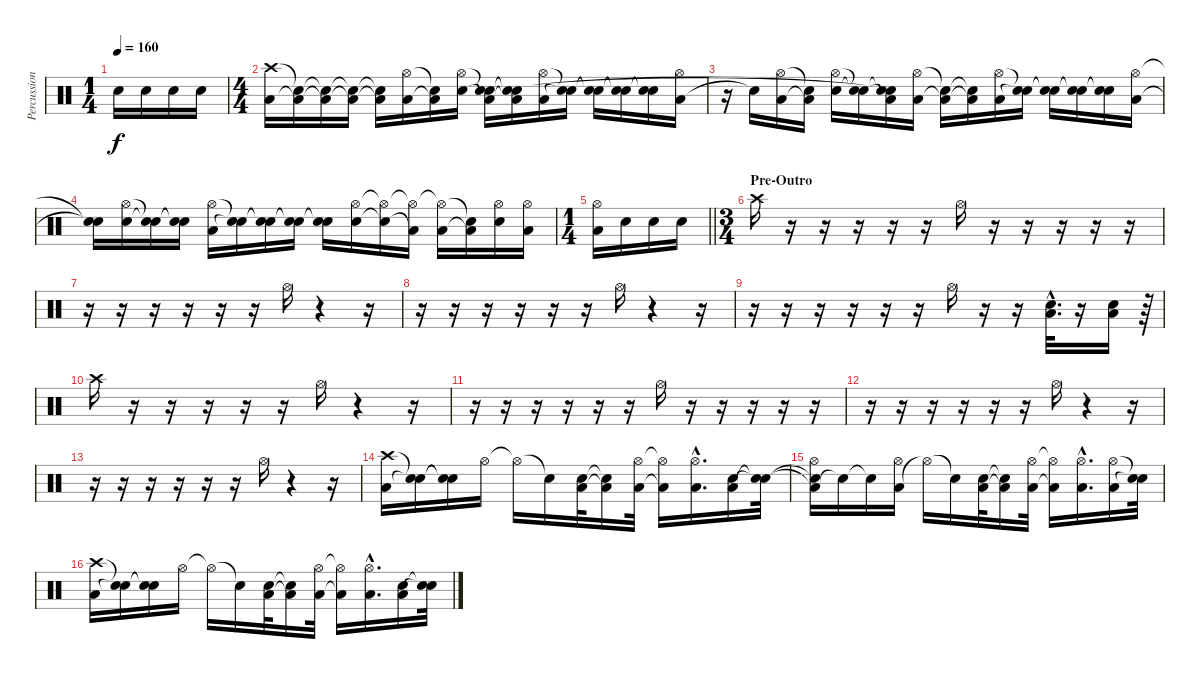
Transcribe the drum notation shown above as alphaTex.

\track ("Percussion 1" "Percussion") {instrument percussion}
\staff {score}
\articulation defaults
\ts (1 4)
\tempo 160
\clef neutral
\ks c "Snare (hit) 2".16{dy f} "Snare (hit) 2".16 "Snare (hit) 2".16 "Snare (hit) 2".16
|
\ts (4 4)
("Low Floor Tom (hit)" "Crash high (hit)").16 ("Low Floor Tom (hit)"{t} "Snare (hit)"{t}).16 ("Low Floor Tom (hit)"{t} "Snare (hit)"{t}).16 ("Low Floor Tom (hit)"{t} "Snare (hit)"{t}).16 ("Low Floor Tom (hit)"{t} "Snare (hit)"{t}).16 ("Low Floor Tom (hit)" "Hi-Hat (open)").16 ("Low Floor Tom (hit)"{t} "Snare (hit)"{t}).16 ("Snare (hit) 2" "Hi-Hat (open)").16 ("Low Floor Tom (hit)"{t} "Snare (hit)"{t} "Snare (hit)"{t}).16 ("Low Floor Tom (hit)"{t} "Snare (hit)"{t} "Snare (hit)"{t}).16 ("Low Floor Tom (hit)" "Hi-Hat (open)").16 ("Snare (hit)"{t} "Snare (hit)"{t}).16 ("Snare (hit)"{t} "Snare (hit)"{t}).16 ("Snare (hit)"{t} "Snare (hit)"{t}).16 ("Snare (hit)"{t} "Snare (hit)"{t}).16 ("Low Floor Tom (hit)" "Hi-Hat (open)").16 |
r.16 "Snare (hit)"{t}.16 ("Low Floor Tom (hit)" "Hi-Hat (open)").16 ("Low Floor Tom (hit)"{t} "Snare (hit)"{t}).16 ("Snare (hit) 2" "Hi-Hat (open)").16 ("Snare (hit)"{t} "Snare (hit)"{t}).16 ("Low Floor Tom (hit)"{t} "Snare (hit)"{t} "Snare (hit)"{t}).16 ("Low Floor Tom (hit)" "Hi-Hat (open)").16 ("Low Floor Tom (hit)"{t} "Snare (hit)"{t}).16 ("Low Floor Tom (hit)"{t} "Snare (hit)"{t}).16 ("Low Floor Tom (hit)" "Hi-Hat (open)").16 ("Snare (hit)"{t} "Snare (hit)"{t}).16 ("Snare (hit)"{t} "Snare (hit)"{t}).16 ("Snare (hit)"{t} "Snare (hit)"{t}).16 ("Snare (hit)"{t} "Snare (hit)"{t}).16 ("Low Floor Tom (hit)" "Hi-Hat (open)").16 |
("Snare (hit)"{t} "Snare (hit)"{t}).16 ("Snare (hit) 2" "Hi-Hat (open)").16 ("Snare (hit)"{t} "Snare (hit)"{t}).16 ("Snare (hit)"{t} "Snare (hit)"{t}).16 ("Low Floor Tom (hit)" "Hi-Hat (open)").16 ("Snare (hit)"{t} "Snare (hit)"{t}).16 ("Snare (hit)"{t} "Snare (hit)"{t}).16 ("Snare (hit)"{t} "Snare (hit)"{t}).16 ("Snare (hit)"{t} "Snare (hit)"{t}).16 ("Snare (hit) 2" "Hi-Hat (open)").16 ("Snare (hit)"{t} "Hi-Hat (open)"{t}).16 ("Low Floor Tom (hit)"{t} "Hi-Hat (open)"{t}).16 ("Low Floor Tom (hit)" "Hi-Hat (open)"{t}).16 ("Low Floor Tom (hit)"{t} "Snare (hit)"{t}).16 ("Snare (hit) 2" "Hi-Hat (open)").16 ("Low Floor Tom (hit)" "Hi-Hat (open)").16 |
\ts (1 4)
\barLineRight lightlight
("Low Floor Tom (hit)" "Hi-Hat (open)").16 "Snare (hit) 2".16 "Snare (hit) 2".16 "Snare (hit) 2".16 |
\ts (3 4)
\section ("" "Pre-Outro")
"Crash high (hit)".16 r.16 r.16 r.16 r.16 r.16 "Hi-Hat (open)".16 r.16 r.16 r.16 r.16 r.16 |
r.16 r.16 r.16 r.16 r.16 r.16 "Hi-Hat (open)".16 r.4 r.16 |
r.16 r.16 r.16 r.16 r.16 r.16 "Hi-Hat (open)".16 r.4 r.16 |
r.16 r.16 r.16 r.16 r.16 r.16 "Hi-Hat (open)".16 r.16 r.16 ("Low Floor Tom (hit)"{hac} "Snare (hit) 2"{hac}).32{d} r.16 ("Low Floor Tom (hit)" "Snare (hit) 2").16 r.64 |
"Crash high (hit)".16 r.16 r.16 r.16 r.16 r.16 "Hi-Hat (open)".16 r.4 r.16 |
r.16 r.16 r.16 r.16 r.16 r.16 "Hi-Hat (open)".16 r.16 r.16 r.16 r.16 r.16 |
r.16 r.16 r.16 r.16 r.16 r.16 "Hi-Hat (open)".16 r.4 r.16 |
r.16 r.16 r.16 r.16 r.16 r.16 "Hi-Hat (open)".16 r.4 r.16 |
("Low Floor Tom (hit)" "Crash high (hit)").16 ("Snare (hit)"{t} "Snare (hit)"{t}).16 ("Snare (hit)"{t} "Snare (hit)"{t}).16 "Hi-Hat (open)".16 "Hi-Hat (open)"{t}.16 "Snare (hit)"{t}.16 ("Low Floor Tom (hit)" "Snare (hit) 2").32 ("Low Floor Tom (hit)"{t} "Snare (hit)"{t}).16 ("Low Floor Tom (hit)" "Hi-Hat (open)").32 ("Low Floor Tom (hit)"{t} "Hi-Hat (open)"{t}).16 ("Low Floor Tom (hit)"{hac} "Hi-Hat (open)"{hac}).16{d} ("Low Floor Tom (hit)" "Snare (hit) 2").16 ("Snare (hit)"{t} "Snare (hit)"{t}).32 |
("Low Floor Tom (hit)"{t} "Snare (hit)"{t} "Hi-Hat (open)").16 "Snare (hit)"{t}.16 "Snare (hit)"{t}.16 ("Low Floor Tom (hit)" "Hi-Hat (open)").16 "Hi-Hat (open)"{t}.16 "Snare (hit)"{t}.16 ("Low Floor Tom (hit)" "Snare (hit) 2").32 ("Low Floor Tom (hit)"{t} "Snare (hit)"{t}).16 ("Low Floor Tom (hit)" "Hi-Hat (open)").32 ("Low Floor Tom (hit)"{t} "Hi-Hat (open)"{t}).16 ("Low Floor Tom (hit)"{hac} "Hi-Hat (open)"{hac}).16{d} ("Low Floor Tom (hit)" "Hi-Hat (open)").16 ("Snare (hit)"{t} "Snare (hit)"{t}).32 |
("Low Floor Tom (hit)" "Crash high (hit)").16 ("Snare (hit)"{t} "Snare (hit)"{t}).16 ("Snare (hit)"{t} "Snare (hit)"{t}).16 "Hi-Hat (open)".16 "Hi-Hat (open)"{t}.16 "Snare (hit)"{t}.16 ("Low Floor Tom (hit)" "Snare (hit) 2").32 ("Low Floor Tom (hit)"{t} "Snare (hit)"{t}).16 ("Low Floor Tom (hit)" "Hi-Hat (open)").32 ("Low Floor Tom (hit)"{t} "Hi-Hat (open)"{t}).16 ("Low Floor Tom (hit)"{hac} "Hi-Hat (open)"{hac}).16{d} ("Low Floor Tom (hit)" "Snare (hit) 2").16 ("Snare (hit)"{t} "Snare (hit)"{t}).32
